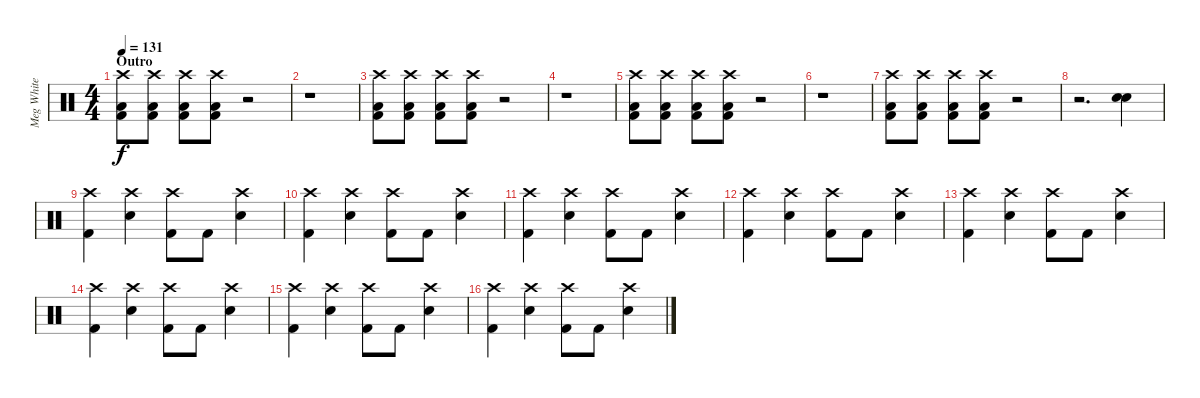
\track ("Meg White - Drums" "Meg White ") {instrument percussion}
\staff {score}
\articulation defaults
\ts (4 4)
\section ("" "Outro")
\tempo 131
\clef neutral
\ks c
("Crash high (hit)" "Low Floor Tom (hit)" "Kick (hit) 2").8{dy f} ("Crash high (hit)" "Low Floor Tom (hit)" "Kick (hit) 2").8 ("Crash high (hit)" "Low Floor Tom (hit)" "Kick (hit) 2").8 ("Crash high (hit)" "Low Floor Tom (hit)" "Kick (hit) 2").8 r.2 |
r.1 |
("Crash high (hit)" "Low Floor Tom (hit)" "Kick (hit) 2").8 ("Crash high (hit)" "Low Floor Tom (hit)" "Kick (hit) 2").8 ("Crash high (hit)" "Low Floor Tom (hit)" "Kick (hit) 2").8 ("Crash high (hit)" "Low Floor Tom (hit)" "Kick (hit) 2").8 r.2 |
r.1 |
("Crash high (hit)" "Low Floor Tom (hit)" "Kick (hit) 2").8 ("Crash high (hit)" "Low Floor Tom (hit)" "Kick (hit) 2").8 ("Crash high (hit)" "Low Floor Tom (hit)" "Kick (hit) 2").8 ("Crash high (hit)" "Low Floor Tom (hit)" "Kick (hit) 2").8 r.2 |
r.1 |
("Crash high (hit)" "Low Floor Tom (hit)" "Kick (hit) 2").8 ("Crash high (hit)" "Low Floor Tom (hit)" "Kick (hit) 2").8 ("Crash high (hit)" "Low Floor Tom (hit)" "Kick (hit) 2").8 ("Crash high (hit)" "Low Floor Tom (hit)" "Kick (hit) 2").8 r.2 |
r.2{d} ("Electric Snare (hit)" "Electric Snare (hit)").4 |
("Crash high (hit)" "Kick (hit) 2").4 ("Crash high (hit)" "Electric Snare (hit)").4 ("Crash high (hit)" "Kick (hit) 2").8 "Kick (hit) 2".8 ("Crash high (hit)" "Electric Snare (hit)").4 |
("Crash high (hit)" "Kick (hit) 2").4 ("Crash high (hit)" "Electric Snare (hit)").4 ("Crash high (hit)" "Kick (hit) 2").8 "Kick (hit) 2".8 ("Crash high (hit)" "Electric Snare (hit)").4 |
("Crash high (hit)" "Kick (hit) 2").4 ("Crash high (hit)" "Electric Snare (hit)").4 ("Crash high (hit)" "Kick (hit) 2").8 "Kick (hit) 2".8 ("Crash high (hit)" "Electric Snare (hit)").4 |
("Crash high (hit)" "Kick (hit) 2").4 ("Crash high (hit)" "Electric Snare (hit)").4 ("Crash high (hit)" "Kick (hit) 2").8 "Kick (hit) 2".8 ("Crash high (hit)" "Electric Snare (hit)").4 |
("Crash high (hit)" "Kick (hit) 2").4 ("Crash high (hit)" "Electric Snare (hit)").4 ("Crash high (hit)" "Kick (hit) 2").8 "Kick (hit) 2".8 ("Crash high (hit)" "Electric Snare (hit)").4 |
("Crash high (hit)" "Kick (hit) 2").4 ("Crash high (hit)" "Electric Snare (hit)").4 ("Crash high (hit)" "Kick (hit) 2").8 "Kick (hit) 2".8 ("Crash high (hit)" "Electric Snare (hit)").4 |
("Crash high (hit)" "Kick (hit) 2").4 ("Crash high (hit)" "Electric Snare (hit)").4 ("Crash high (hit)" "Kick (hit) 2").8 "Kick (hit) 2".8 ("Crash high (hit)" "Electric Snare (hit)").4 |
("Crash high (hit)" "Kick (hit) 2").4 ("Crash high (hit)" "Electric Snare (hit)").4 ("Crash high (hit)" "Kick (hit) 2").8 "Kick (hit) 2".8 ("Crash high (hit)" "Electric Snare (hit)").4
